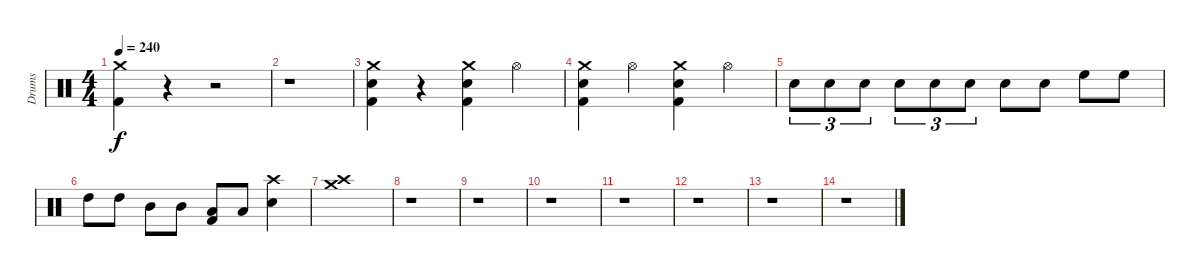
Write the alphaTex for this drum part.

\track ("Drums" "Drums") {instrument percussion}
\staff {score}
\articulation defaults
\ts (4 4)
\tempo 240
\clef neutral
\ks c
("Crash medium (hit)" "Kick (hit) 2").4{dy f} r.4 r.2 |
r.1 |
("Crash medium (hit)" "Snare (hit) 2" "Kick (hit) 2").4 r.4 ("Crash medium (hit)" "Snare (hit) 2" "Kick (hit) 2").4 "Hi-Hat (open)".4 |
("Crash medium (hit)" "Snare (hit) 2" "Kick (hit) 2").4 "Hi-Hat (open)".4 ("Crash medium (hit)" "Snare (hit) 2" "Kick (hit) 2").4 "Hi-Hat (open)".4 |
"Snare (hit) 2".8{tu (3 2)} "Snare (hit) 2".8{tu (3 2)} "Snare (hit) 2".8{tu (3 2)} "Snare (hit) 2".8{tu (3 2)} "Snare (hit) 2".8{tu (3 2)} "Snare (hit) 2".8{tu (3 2)} "Snare (hit) 2".8 "Snare (hit) 2".8 "High Floor Tom (hit)".8 "High Floor Tom (hit)".8 |
"High Tom (hit)".8 "High Tom (hit)".8 "Mid Tom (hit)".8 "Mid Tom (hit)".8 ("Low Tom (hit)" "Kick (hit) 2").8 "Low Tom (hit)".8 ("Crash high (hit)" "Snare (hit) 2").4 |
("Crash medium (hit)" "Crash high (hit)").1 |
r.1 |
r.1 |
r.1 |
r.1 |
r.1 |
r.1 |
r.1
